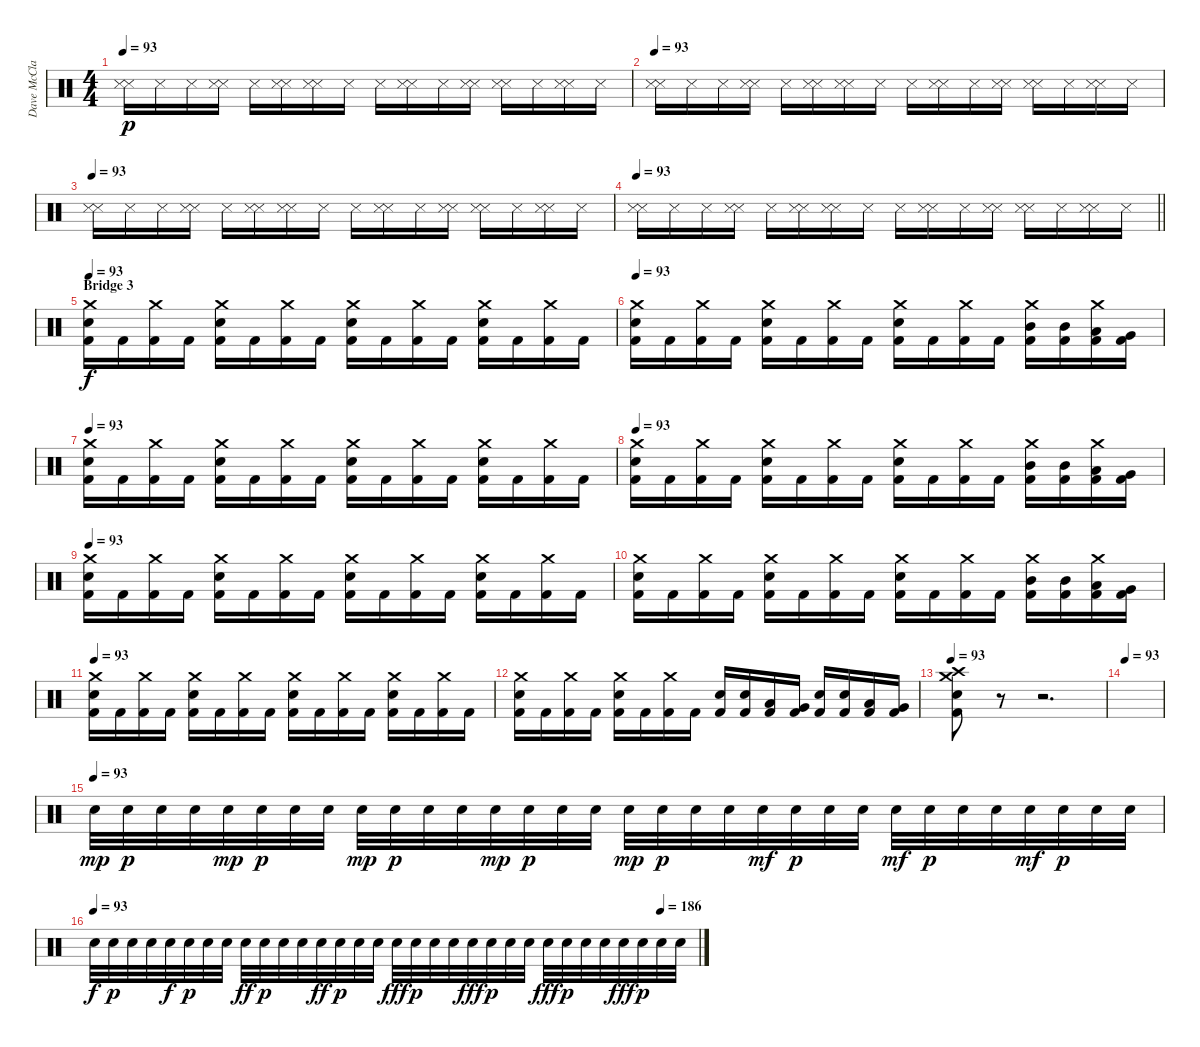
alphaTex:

\track ("Dave McClain" "Dave McCla") {instrument percussion}
\staff {score}
\articulation defaults
\ts (4 4)
\tempo 93
\clef neutral
\ks c
("Snare (side stick) 3" "Snare (side stick) 3").16{dy p} "Snare (side stick) 3".16 "Snare (side stick) 3".16 ("Snare (side stick) 3" "Snare (side stick) 3").16 "Snare (side stick) 3".16 ("Snare (side stick) 3" "Snare (side stick) 3").16 ("Snare (side stick) 3" "Snare (side stick) 3").16 "Snare (side stick) 3".16 "Snare (side stick) 3".16 ("Snare (side stick) 3" "Snare (side stick) 3").16 "Snare (side stick) 3".16 ("Snare (side stick) 3" "Snare (side stick) 3").16 ("Snare (side stick) 3" "Snare (side stick) 3").16 "Snare (side stick) 3".16 ("Snare (side stick) 3" "Snare (side stick) 3").16 "Snare (side stick) 3".16 |
\tempo 93
("Snare (side stick) 3" "Snare (side stick) 3").16 "Snare (side stick) 3".16 "Snare (side stick) 3".16 ("Snare (side stick) 3" "Snare (side stick) 3").16 "Snare (side stick) 3".16 ("Snare (side stick) 3" "Snare (side stick) 3").16 ("Snare (side stick) 3" "Snare (side stick) 3").16 "Snare (side stick) 3".16 "Snare (side stick) 3".16 ("Snare (side stick) 3" "Snare (side stick) 3").16 "Snare (side stick) 3".16 ("Snare (side stick) 3" "Snare (side stick) 3").16 ("Snare (side stick) 3" "Snare (side stick) 3").16 "Snare (side stick) 3".16 ("Snare (side stick) 3" "Snare (side stick) 3").16 "Snare (side stick) 3".16 |
\tempo 93
("Snare (side stick) 3" "Snare (side stick) 3").16 "Snare (side stick) 3".16 "Snare (side stick) 3".16 ("Snare (side stick) 3" "Snare (side stick) 3").16 "Snare (side stick) 3".16 ("Snare (side stick) 3" "Snare (side stick) 3").16 ("Snare (side stick) 3" "Snare (side stick) 3").16 "Snare (side stick) 3".16 "Snare (side stick) 3".16 ("Snare (side stick) 3" "Snare (side stick) 3").16 "Snare (side stick) 3".16 ("Snare (side stick) 3" "Snare (side stick) 3").16 ("Snare (side stick) 3" "Snare (side stick) 3").16 "Snare (side stick) 3".16 ("Snare (side stick) 3" "Snare (side stick) 3").16 "Snare (side stick) 3".16 |
\tempo 93
\barLineRight lightlight
("Snare (side stick) 3" "Snare (side stick) 3").16 "Snare (side stick) 3".16 "Snare (side stick) 3".16 ("Snare (side stick) 3" "Snare (side stick) 3").16 "Snare (side stick) 3".16 ("Snare (side stick) 3" "Snare (side stick) 3").16 ("Snare (side stick) 3" "Snare (side stick) 3").16 "Snare (side stick) 3".16 "Snare (side stick) 3".16 ("Snare (side stick) 3" "Snare (side stick) 3").16 "Snare (side stick) 3".16 ("Snare (side stick) 3" "Snare (side stick) 3").16 ("Snare (side stick) 3" "Snare (side stick) 3").16 "Snare (side stick) 3".16 ("Snare (side stick) 3" "Snare (side stick) 3").16 "Snare (side stick) 3".16 |
\section ("" "Bridge 3")
\tempo 93
("Crash medium (hit)" "Snare (hit) 2" "Kick (hit) 2").16{dy f} "Kick (hit) 2".16 ("Crash medium (hit)" "Kick (hit) 2").16 "Kick (hit) 2".16 ("Crash medium (hit)" "Snare (hit) 2" "Kick (hit) 2").16 "Kick (hit) 2".16 ("Crash medium (hit)" "Kick (hit) 2").16 "Kick (hit) 2".16 ("Crash medium (hit)" "Snare (hit) 2" "Kick (hit) 2").16 "Kick (hit) 2".16 ("Crash medium (hit)" "Kick (hit) 2").16 "Kick (hit) 2".16 ("Crash medium (hit)" "Snare (hit) 2" "Kick (hit) 2").16 "Kick (hit) 2".16 ("Crash medium (hit)" "Kick (hit) 2").16 "Kick (hit) 2".16 |
\tempo 93
("Crash medium (hit)" "Snare (hit) 2" "Kick (hit) 2").16 "Kick (hit) 2".16 ("Crash medium (hit)" "Kick (hit) 2").16 "Kick (hit) 2".16 ("Crash medium (hit)" "Snare (hit) 2" "Kick (hit) 2").16 "Kick (hit) 2".16 ("Crash medium (hit)" "Kick (hit) 2").16 "Kick (hit) 2".16 ("Crash medium (hit)" "Snare (hit) 2" "Kick (hit) 2").16 "Kick (hit) 2".16 ("Crash medium (hit)" "Kick (hit) 2").16 "Kick (hit) 2".16 ("Crash medium (hit)" "Mid Tom (hit)" "Kick (hit) 2").16 ("Mid Tom (hit)" "Kick (hit) 2").16 ("Crash medium (hit)" "Low Tom (hit)" "Kick (hit) 2").16 ("Very Low Tom (hit)" "Kick (hit) 2").16 |
\tempo 93
("Crash medium (hit)" "Snare (hit) 2" "Kick (hit) 2").16 "Kick (hit) 2".16 ("Crash medium (hit)" "Kick (hit) 2").16 "Kick (hit) 2".16 ("Crash medium (hit)" "Snare (hit) 2" "Kick (hit) 2").16 "Kick (hit) 2".16 ("Crash medium (hit)" "Kick (hit) 2").16 "Kick (hit) 2".16 ("Crash medium (hit)" "Snare (hit) 2" "Kick (hit) 2").16 "Kick (hit) 2".16 ("Crash medium (hit)" "Kick (hit) 2").16 "Kick (hit) 2".16 ("Crash medium (hit)" "Snare (hit) 2" "Kick (hit) 2").16 "Kick (hit) 2".16 ("Crash medium (hit)" "Kick (hit) 2").16 "Kick (hit) 2".16 |
\tempo 93
("Crash medium (hit)" "Snare (hit) 2" "Kick (hit) 2").16 "Kick (hit) 2".16 ("Crash medium (hit)" "Kick (hit) 2").16 "Kick (hit) 2".16 ("Crash medium (hit)" "Snare (hit) 2" "Kick (hit) 2").16 "Kick (hit) 2".16 ("Crash medium (hit)" "Kick (hit) 2").16 "Kick (hit) 2".16 ("Crash medium (hit)" "Snare (hit) 2" "Kick (hit) 2").16 "Kick (hit) 2".16 ("Crash medium (hit)" "Kick (hit) 2").16 "Kick (hit) 2".16 ("Crash medium (hit)" "Mid Tom (hit)" "Kick (hit) 2").16 ("Mid Tom (hit)" "Kick (hit) 2").16 ("Crash medium (hit)" "Low Tom (hit)" "Kick (hit) 2").16 ("Very Low Tom (hit)" "Kick (hit) 2").16 |
\tempo 93
("Crash medium (hit)" "Snare (hit) 2" "Kick (hit) 2").16 "Kick (hit) 2".16 ("Crash medium (hit)" "Kick (hit) 2").16 "Kick (hit) 2".16 ("Crash medium (hit)" "Snare (hit) 2" "Kick (hit) 2").16 "Kick (hit) 2".16 ("Crash medium (hit)" "Kick (hit) 2").16 "Kick (hit) 2".16 ("Crash medium (hit)" "Snare (hit) 2" "Kick (hit) 2").16 "Kick (hit) 2".16 ("Crash medium (hit)" "Kick (hit) 2").16 "Kick (hit) 2".16 ("Crash medium (hit)" "Snare (hit) 2" "Kick (hit) 2").16 "Kick (hit) 2".16 ("Crash medium (hit)" "Kick (hit) 2").16 "Kick (hit) 2".16 |
("Crash medium (hit)" "Snare (hit) 2" "Kick (hit) 2").16 "Kick (hit) 2".16 ("Crash medium (hit)" "Kick (hit) 2").16 "Kick (hit) 2".16 ("Crash medium (hit)" "Snare (hit) 2" "Kick (hit) 2").16 "Kick (hit) 2".16 ("Crash medium (hit)" "Kick (hit) 2").16 "Kick (hit) 2".16 ("Crash medium (hit)" "Snare (hit) 2" "Kick (hit) 2").16 "Kick (hit) 2".16 ("Crash medium (hit)" "Kick (hit) 2").16 "Kick (hit) 2".16 ("Crash medium (hit)" "Mid Tom (hit)" "Kick (hit) 2").16 ("Mid Tom (hit)" "Kick (hit) 2").16 ("Crash medium (hit)" "Low Tom (hit)" "Kick (hit) 2").16 ("Very Low Tom (hit)" "Kick (hit) 2").16 |
\tempo 93
("Crash medium (hit)" "Snare (hit) 2" "Kick (hit) 2").16 "Kick (hit) 2".16 ("Crash medium (hit)" "Kick (hit) 2").16 "Kick (hit) 2".16 ("Crash medium (hit)" "Snare (hit) 2" "Kick (hit) 2").16 "Kick (hit) 2".16 ("Crash medium (hit)" "Kick (hit) 2").16 "Kick (hit) 2".16 ("Crash medium (hit)" "Snare (hit) 2" "Kick (hit) 2").16 "Kick (hit) 2".16 ("Crash medium (hit)" "Kick (hit) 2").16 "Kick (hit) 2".16 ("Crash medium (hit)" "Snare (hit) 2" "Kick (hit) 2").16 "Kick (hit) 2".16 ("Crash medium (hit)" "Kick (hit) 2").16 "Kick (hit) 2".16 |
("Crash medium (hit)" "Snare (hit) 2" "Kick (hit) 2").16 "Kick (hit) 2".16 ("Crash medium (hit)" "Kick (hit) 2").16 "Kick (hit) 2".16 ("Crash medium (hit)" "Snare (hit) 2" "Kick (hit) 2").16 "Kick (hit) 2".16 ("Crash medium (hit)" "Kick (hit) 2").16 "Kick (hit) 2".16 ("Snare (hit) 2" "Kick (hit) 2").16 ("Snare (hit) 2" "Kick (hit) 2").16 ("Low Tom (hit)" "Kick (hit) 2").16 ("Very Low Tom (hit)" "Kick (hit) 2").16 ("Snare (hit) 2" "Kick (hit) 2").16 ("Snare (hit) 2" "Kick (hit) 2").16 ("Low Tom (hit)" "Kick (hit) 2").16 ("Very Low Tom (hit)" "Kick (hit) 2").16 |
\tempo 93
("Crash medium (hit)" "Crash high (hit)" "Snare (hit) 2" "Kick (hit) 2").8 r.8 r.2{d} |
\tempo 93
|
\tempo (93)
"Snare (hit) 2".32{dy mp} "Snare (hit) 2".32{dy p} "Snare (hit) 2".32 "Snare (hit) 2".32 "Snare (hit) 2".32{dy mp} "Snare (hit) 2".32{dy p} "Snare (hit) 2".32 "Snare (hit) 2".32 "Snare (hit) 2".32{dy mp} "Snare (hit) 2".32{dy p} "Snare (hit) 2".32 "Snare (hit) 2".32 "Snare (hit) 2".32{dy mp} "Snare (hit) 2".32{dy p} "Snare (hit) 2".32 "Snare (hit) 2".32 "Snare (hit) 2".32{dy mp} "Snare (hit) 2".32{dy p} "Snare (hit) 2".32 "Snare (hit) 2".32 "Snare (hit) 2".32{dy mf} "Snare (hit) 2".32{dy p} "Snare (hit) 2".32 "Snare (hit) 2".32 "Snare (hit) 2".32{dy mf} "Snare (hit) 2".32{dy p} "Snare (hit) 2".32 "Snare (hit) 2".32 "Snare (hit) 2".32{dy mf} "Snare (hit) 2".32{dy p} "Snare (hit) 2".32 "Snare (hit) 2".32 |
\tempo 93
\tempo (186 0.9375)
"Snare (hit) 2".32{dy f} "Snare (hit) 2".32{dy p} "Snare (hit) 2".32 "Snare (hit) 2".32 "Snare (hit) 2".32{dy f} "Snare (hit) 2".32{dy p} "Snare (hit) 2".32 "Snare (hit) 2".32 "Snare (hit) 2".32{dy ff} "Snare (hit) 2".32{dy p} "Snare (hit) 2".32 "Snare (hit) 2".32 "Snare (hit) 2".32{dy ff} "Snare (hit) 2".32{dy p} "Snare (hit) 2".32 "Snare (hit) 2".32 "Snare (hit) 2".32{dy fff} "Snare (hit) 2".32{dy p} "Snare (hit) 2".32 "Snare (hit) 2".32 "Snare (hit) 2".32{dy fff} "Snare (hit) 2".32{dy p} "Snare (hit) 2".32 "Snare (hit) 2".32 "Snare (hit) 2".32{dy fff} "Snare (hit) 2".32{dy p} "Snare (hit) 2".32 "Snare (hit) 2".32 "Snare (hit) 2".32{dy fff} "Snare (hit) 2".32{dy p} "Snare (hit) 2".32 "Snare (hit) 2".32
